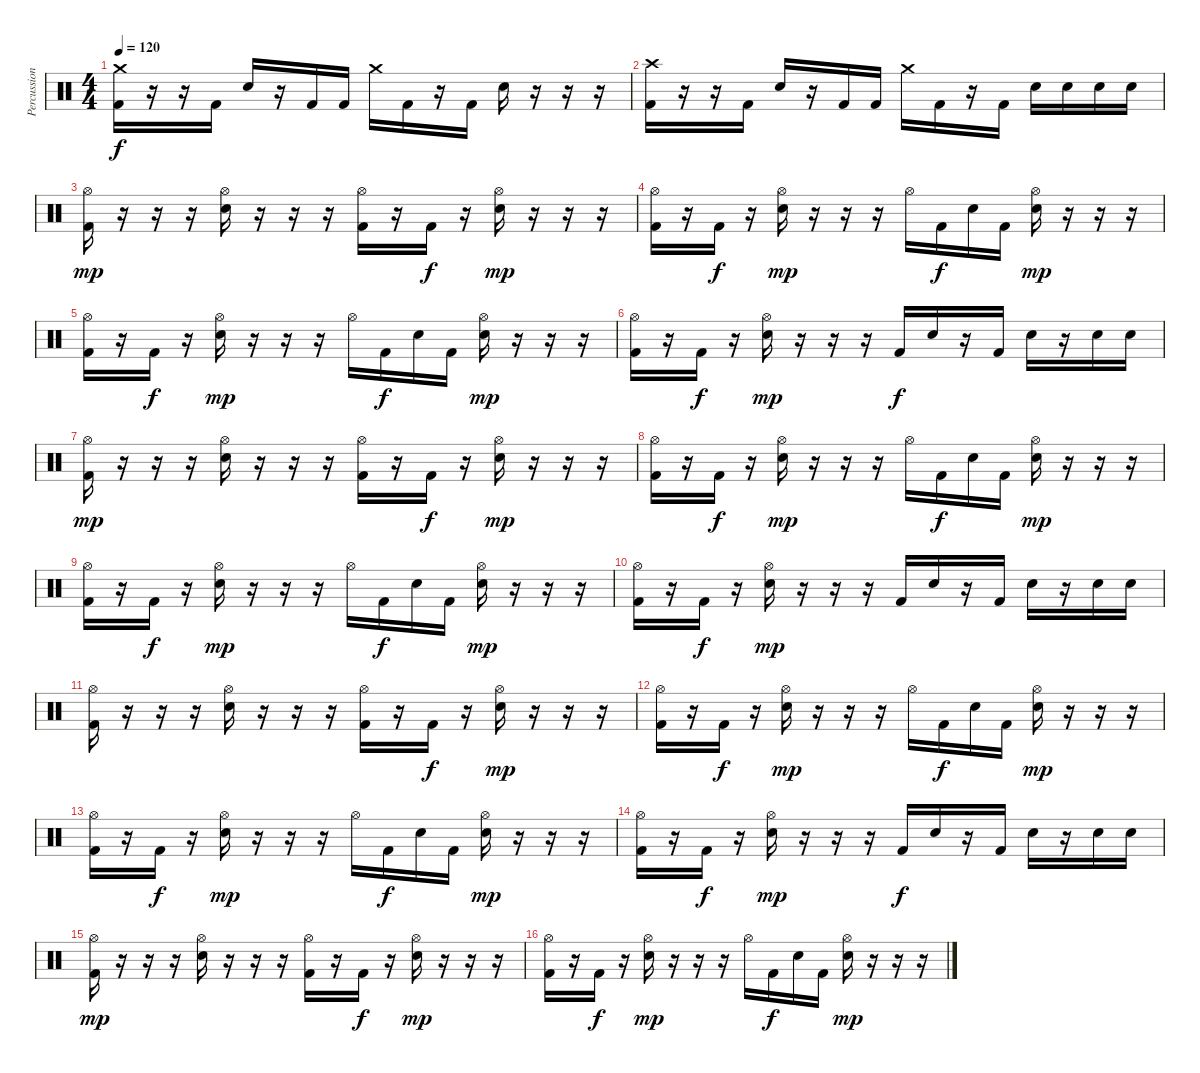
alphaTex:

\track ("Percussion" "Percussion") {instrument percussion}
\staff {score}
\articulation defaults
\ts (4 4)
\tempo 120
\clef neutral
\ks c
("Kick (hit) 2" "Crash medium (hit)").16{dy f} r.16 r.16 "Kick (hit) 2".16 "Snare (hit) 2".16 r.16 "Kick (hit) 2".16 "Kick (hit) 2".16 "Crash medium (hit)".16 "Kick (hit) 2".16 r.16 "Kick (hit) 2".16 "Snare (hit) 2".16 r.16 r.16 r.16 |
("Kick (hit) 2" "Crash high (hit)").16 r.16 r.16 "Kick (hit) 2".16 "Snare (hit) 2".16 r.16 "Kick (hit) 2".16 "Kick (hit) 2".16 "Crash medium (hit)".16 "Kick (hit) 2".16 r.16 "Kick (hit) 2".16 "Snare (hit) 2".16 "Snare (hit) 2".16 "Snare (hit) 2".16 "Snare (hit) 2".16 |
("Kick (hit) 2" "Hi-Hat (open)").16{dy mp} r.16 r.16 r.16 ("Snare (hit) 2" "Hi-Hat (open)").16 r.16 r.16 r.16 ("Kick (hit) 2" "Hi-Hat (open)").16 r.16 "Kick (hit) 2".16{dy f} r.16 ("Snare (hit) 2" "Hi-Hat (open)").16{dy mp} r.16 r.16 r.16 |
("Kick (hit) 2" "Hi-Hat (open)").16 r.16 "Kick (hit) 2".16{dy f} r.16 ("Snare (hit) 2" "Hi-Hat (open)").16{dy mp} r.16 r.16 r.16 "Hi-Hat (open)".16 "Kick (hit) 2".16{dy f} "Snare (hit) 2".16 "Kick (hit) 2".16 ("Snare (hit) 2" "Hi-Hat (open)").16{dy mp} r.16 r.16 r.16 |
("Kick (hit) 2" "Hi-Hat (open)").16 r.16 "Kick (hit) 2".16{dy f} r.16 ("Snare (hit) 2" "Hi-Hat (open)").16{dy mp} r.16 r.16 r.16 "Hi-Hat (open)".16 "Kick (hit) 2".16{dy f} "Snare (hit) 2".16 "Kick (hit) 2".16 ("Snare (hit) 2" "Hi-Hat (open)").16{dy mp} r.16 r.16 r.16 |
("Kick (hit) 2" "Hi-Hat (open)").16 r.16 "Kick (hit) 2".16{dy f} r.16 ("Snare (hit) 2" "Hi-Hat (open)").16{dy mp} r.16 r.16 r.16 "Kick (hit) 2".16{dy f} "Snare (hit) 2".16 r.16 "Kick (hit) 2".16 "Snare (hit) 2".16 r.16 "Snare (hit) 2".16 "Snare (hit) 2".16 |
("Kick (hit) 2" "Hi-Hat (open)").16{dy mp} r.16 r.16 r.16 ("Snare (hit) 2" "Hi-Hat (open)").16 r.16 r.16 r.16 ("Kick (hit) 2" "Hi-Hat (open)").16 r.16 "Kick (hit) 2".16{dy f} r.16 ("Snare (hit) 2" "Hi-Hat (open)").16{dy mp} r.16 r.16 r.16 |
("Kick (hit) 2" "Hi-Hat (open)").16 r.16 "Kick (hit) 2".16{dy f} r.16 ("Snare (hit) 2" "Hi-Hat (open)").16{dy mp} r.16 r.16 r.16 "Hi-Hat (open)".16 "Kick (hit) 2".16{dy f} "Snare (hit) 2".16 "Kick (hit) 2".16 ("Snare (hit) 2" "Hi-Hat (open)").16{dy mp} r.16 r.16 r.16 |
("Kick (hit) 2" "Hi-Hat (open)").16 r.16 "Kick (hit) 2".16{dy f} r.16 ("Snare (hit) 2" "Hi-Hat (open)").16{dy mp} r.16 r.16 r.16 "Hi-Hat (open)".16 "Kick (hit) 2".16{dy f} "Snare (hit) 2".16 "Kick (hit) 2".16 ("Snare (hit) 2" "Hi-Hat (open)").16{dy mp} r.16 r.16 r.16 |
("Kick (hit) 2" "Hi-Hat (open)").16 r.16 "Kick (hit) 2".16{dy f} r.16 ("Snare (hit) 2" "Hi-Hat (open)").16{dy mp} r.16 r.16 r.16 "Kick (hit) 2".16 "Snare (hit) 2".16 r.16 "Kick (hit) 2".16 "Snare (hit) 2".16 r.16 "Snare (hit) 2".16 "Snare (hit) 2".16 |
("Kick (hit) 2" "Hi-Hat (open)").16 r.16 r.16 r.16 ("Snare (hit) 2" "Hi-Hat (open)").16 r.16 r.16 r.16 ("Kick (hit) 2" "Hi-Hat (open)").16 r.16 "Kick (hit) 2".16{dy f} r.16 ("Snare (hit) 2" "Hi-Hat (open)").16{dy mp} r.16 r.16 r.16 |
("Kick (hit) 2" "Hi-Hat (open)").16 r.16 "Kick (hit) 2".16{dy f} r.16 ("Snare (hit) 2" "Hi-Hat (open)").16{dy mp} r.16 r.16 r.16 "Hi-Hat (open)".16 "Kick (hit) 2".16{dy f} "Snare (hit) 2".16 "Kick (hit) 2".16 ("Snare (hit) 2" "Hi-Hat (open)").16{dy mp} r.16 r.16 r.16 |
("Kick (hit) 2" "Hi-Hat (open)").16 r.16 "Kick (hit) 2".16{dy f} r.16 ("Snare (hit) 2" "Hi-Hat (open)").16{dy mp} r.16 r.16 r.16 "Hi-Hat (open)".16 "Kick (hit) 2".16{dy f} "Snare (hit) 2".16 "Kick (hit) 2".16 ("Snare (hit) 2" "Hi-Hat (open)").16{dy mp} r.16 r.16 r.16 |
("Kick (hit) 2" "Hi-Hat (open)").16 r.16 "Kick (hit) 2".16{dy f} r.16 ("Snare (hit) 2" "Hi-Hat (open)").16{dy mp} r.16 r.16 r.16 "Kick (hit) 2".16{dy f} "Snare (hit) 2".16 r.16 "Kick (hit) 2".16 "Snare (hit) 2".16 r.16 "Snare (hit) 2".16 "Snare (hit) 2".16 |
("Kick (hit) 2" "Hi-Hat (open)").16{dy mp} r.16 r.16 r.16 ("Snare (hit) 2" "Hi-Hat (open)").16 r.16 r.16 r.16 ("Kick (hit) 2" "Hi-Hat (open)").16 r.16 "Kick (hit) 2".16{dy f} r.16 ("Snare (hit) 2" "Hi-Hat (open)").16{dy mp} r.16 r.16 r.16 |
("Kick (hit) 2" "Hi-Hat (open)").16 r.16 "Kick (hit) 2".16{dy f} r.16 ("Snare (hit) 2" "Hi-Hat (open)").16{dy mp} r.16 r.16 r.16 "Hi-Hat (open)".16 "Kick (hit) 2".16{dy f} "Snare (hit) 2".16 "Kick (hit) 2".16 ("Snare (hit) 2" "Hi-Hat (open)").16{dy mp} r.16 r.16 r.16
